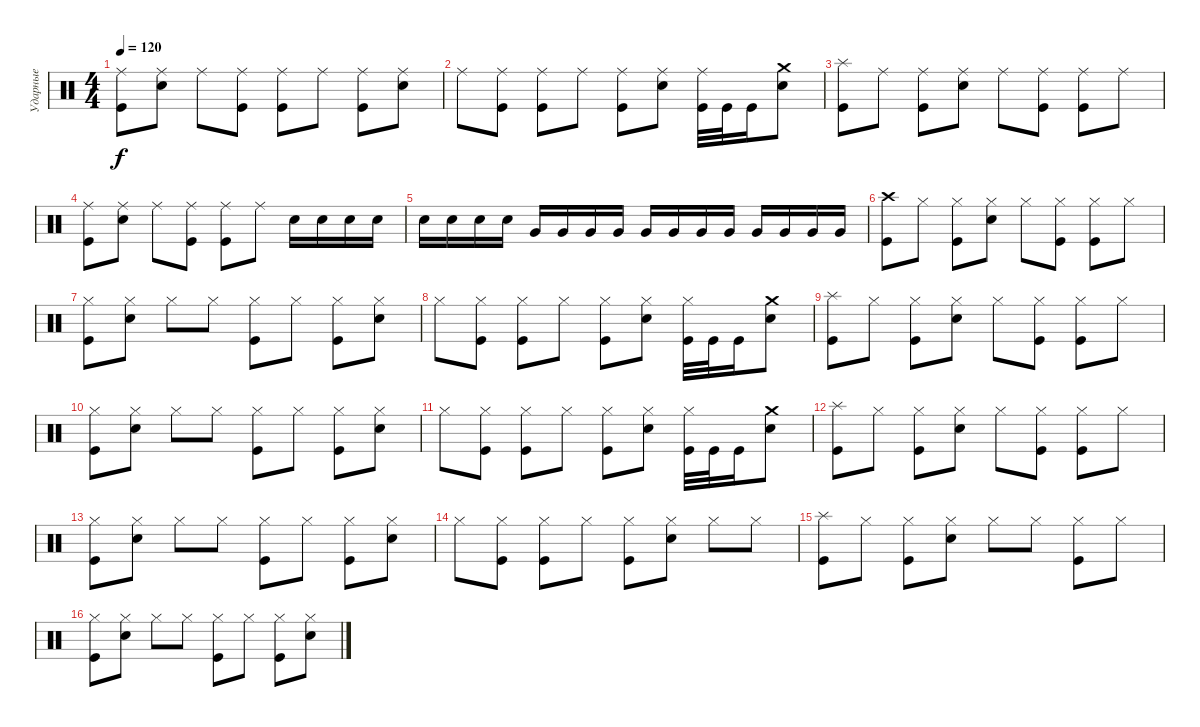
\track ("Ударные" "Ударные") {instrument percussion}
\staff {score}
\articulation defaults
\ts (4 4)
\tempo 120
\clef neutral
\ks c
("Ride (middle)" "Kick (hit)").8{dy f} ("Ride (middle)" "Electric Snare (hit)").8 "Ride (middle)".8 ("Ride (middle)" "Kick (hit)").8 ("Ride (middle)" "Kick (hit)").8 "Ride (middle)".8 ("Ride (middle)" "Kick (hit)").8 ("Ride (middle)" "Electric Snare (hit)").8 |
"Ride (middle)".8 ("Ride (middle)" "Kick (hit)").8 ("Ride (middle)" "Kick (hit)").8 "Ride (middle)".8 ("Ride (middle)" "Kick (hit)").8 ("Ride (middle)" "Electric Snare (hit)").8 ("Ride (middle)" "Kick (hit)").32 "Kick (hit)".32 "Kick (hit)".16 ("Crash medium (hit)" "Electric Snare (hit)").8 |
("Splash (hit)" "Kick (hit)").8 "Ride (middle)".8 ("Ride (middle)" "Kick (hit)").8 ("Ride (middle)" "Electric Snare (hit)").8 "Ride (middle)".8 ("Ride (middle)" "Kick (hit)").8 ("Ride (middle)" "Kick (hit)").8 "Ride (middle)".8 |
("Ride (middle)" "Kick (hit)").8 ("Ride (middle)" "Electric Snare (hit)").8 "Ride (middle)".8 ("Ride (middle)" "Kick (hit)").8 ("Ride (middle)" "Kick (hit)").8 "Ride (middle)".8 "Electric Snare (hit)".16 "Electric Snare (hit)".16 "Electric Snare (hit)".16 "Electric Snare (hit)".16 |
"Electric Snare (hit)".16 "Electric Snare (hit)".16 "Electric Snare (hit)".16 "Electric Snare (hit)".16 "Very Low Tom (hit)".16 "Very Low Tom (hit)".16 "Very Low Tom (hit)".16 "Very Low Tom (hit)".16 "Very Low Tom (hit)".16 "Very Low Tom (hit)".16 "Very Low Tom (hit)".16 "Very Low Tom (hit)".16 "Very Low Tom (hit)".16 "Very Low Tom (hit)".16 "Very Low Tom (hit)".16 "Very Low Tom (hit)".16 |
("Crash high (hit)" "Kick (hit)").8 "Hi-Hat (closed)".8 ("Hi-Hat (closed)" "Kick (hit)").8 ("Hi-Hat (closed)" "Electric Snare (hit)").8 "Hi-Hat (closed)".8 ("Hi-Hat (closed)" "Kick (hit)").8 ("Hi-Hat (closed)" "Kick (hit)").8 "Hi-Hat (closed)".8 |
("Hi-Hat (closed)" "Kick (hit)").8 ("Hi-Hat (closed)" "Electric Snare (hit)").8 "Hi-Hat (closed)".8 "Hi-Hat (closed)".8 ("Hi-Hat (closed)" "Kick (hit)").8 "Hi-Hat (closed)".8 ("Hi-Hat (closed)" "Kick (hit)").8 ("Hi-Hat (closed)" "Electric Snare (hit)").8 |
"Hi-Hat (closed)".8 ("Hi-Hat (closed)" "Kick (hit)").8 ("Hi-Hat (closed)" "Kick (hit)").8 "Hi-Hat (closed)".8 ("Hi-Hat (closed)" "Kick (hit)").8 ("Hi-Hat (closed)" "Electric Snare (hit)").8 ("Hi-Hat (closed)" "Kick (hit)").32 "Kick (hit)".32 "Kick (hit)".16 ("Crash medium (hit)" "Electric Snare (hit)").8 |
("Splash (hit)" "Kick (hit)").8 "Hi-Hat (closed)".8 ("Hi-Hat (closed)" "Kick (hit)").8 ("Hi-Hat (closed)" "Electric Snare (hit)").8 "Hi-Hat (closed)".8 ("Hi-Hat (closed)" "Kick (hit)").8 ("Hi-Hat (closed)" "Kick (hit)").8 "Hi-Hat (closed)".8 |
("Hi-Hat (closed)" "Kick (hit)").8 ("Hi-Hat (closed)" "Electric Snare (hit)").8 "Hi-Hat (closed)".8 "Hi-Hat (closed)".8 ("Hi-Hat (closed)" "Kick (hit)").8 "Hi-Hat (closed)".8 ("Hi-Hat (closed)" "Kick (hit)").8 ("Hi-Hat (closed)" "Electric Snare (hit)").8 |
"Hi-Hat (closed)".8 ("Hi-Hat (closed)" "Kick (hit)").8 ("Hi-Hat (closed)" "Kick (hit)").8 "Hi-Hat (closed)".8 ("Hi-Hat (closed)" "Kick (hit)").8 ("Hi-Hat (closed)" "Electric Snare (hit)").8 ("Hi-Hat (closed)" "Kick (hit)").32 "Kick (hit)".32 "Kick (hit)".16 ("Crash medium (hit)" "Electric Snare (hit)").8 |
("Splash (hit)" "Kick (hit)").8 "Hi-Hat (closed)".8 ("Hi-Hat (closed)" "Kick (hit)").8 ("Hi-Hat (closed)" "Electric Snare (hit)").8 "Hi-Hat (closed)".8 ("Hi-Hat (closed)" "Kick (hit)").8 ("Hi-Hat (closed)" "Kick (hit)").8 "Hi-Hat (closed)".8 |
("Hi-Hat (closed)" "Kick (hit)").8 ("Hi-Hat (closed)" "Electric Snare (hit)").8 "Hi-Hat (closed)".8 "Hi-Hat (closed)".8 ("Hi-Hat (closed)" "Kick (hit)").8 "Hi-Hat (closed)".8 ("Hi-Hat (closed)" "Kick (hit)").8 ("Hi-Hat (closed)" "Electric Snare (hit)").8 |
"Hi-Hat (closed)".8 ("Hi-Hat (closed)" "Kick (hit)").8 ("Hi-Hat (closed)" "Kick (hit)").8 "Hi-Hat (closed)".8 ("Hi-Hat (closed)" "Kick (hit)").8 ("Hi-Hat (closed)" "Electric Snare (hit)").8 "Hi-Hat (closed)".8 "Hi-Hat (closed)".8 |
("Splash (hit)" "Kick (hit)").8 "Hi-Hat (closed)".8 ("Hi-Hat (closed)" "Kick (hit)").8 ("Hi-Hat (closed)" "Electric Snare (hit)").8 "Hi-Hat (closed)".8 "Hi-Hat (closed)".8 ("Hi-Hat (closed)" "Kick (hit)").8 "Hi-Hat (closed)".8 |
("Hi-Hat (closed)" "Kick (hit)").8 ("Hi-Hat (closed)" "Electric Snare (hit)").8 "Hi-Hat (closed)".8 "Hi-Hat (closed)".8 ("Hi-Hat (closed)" "Kick (hit)").8 "Hi-Hat (closed)".8 ("Hi-Hat (closed)" "Kick (hit)").8 ("Hi-Hat (closed)" "Electric Snare (hit)").8
